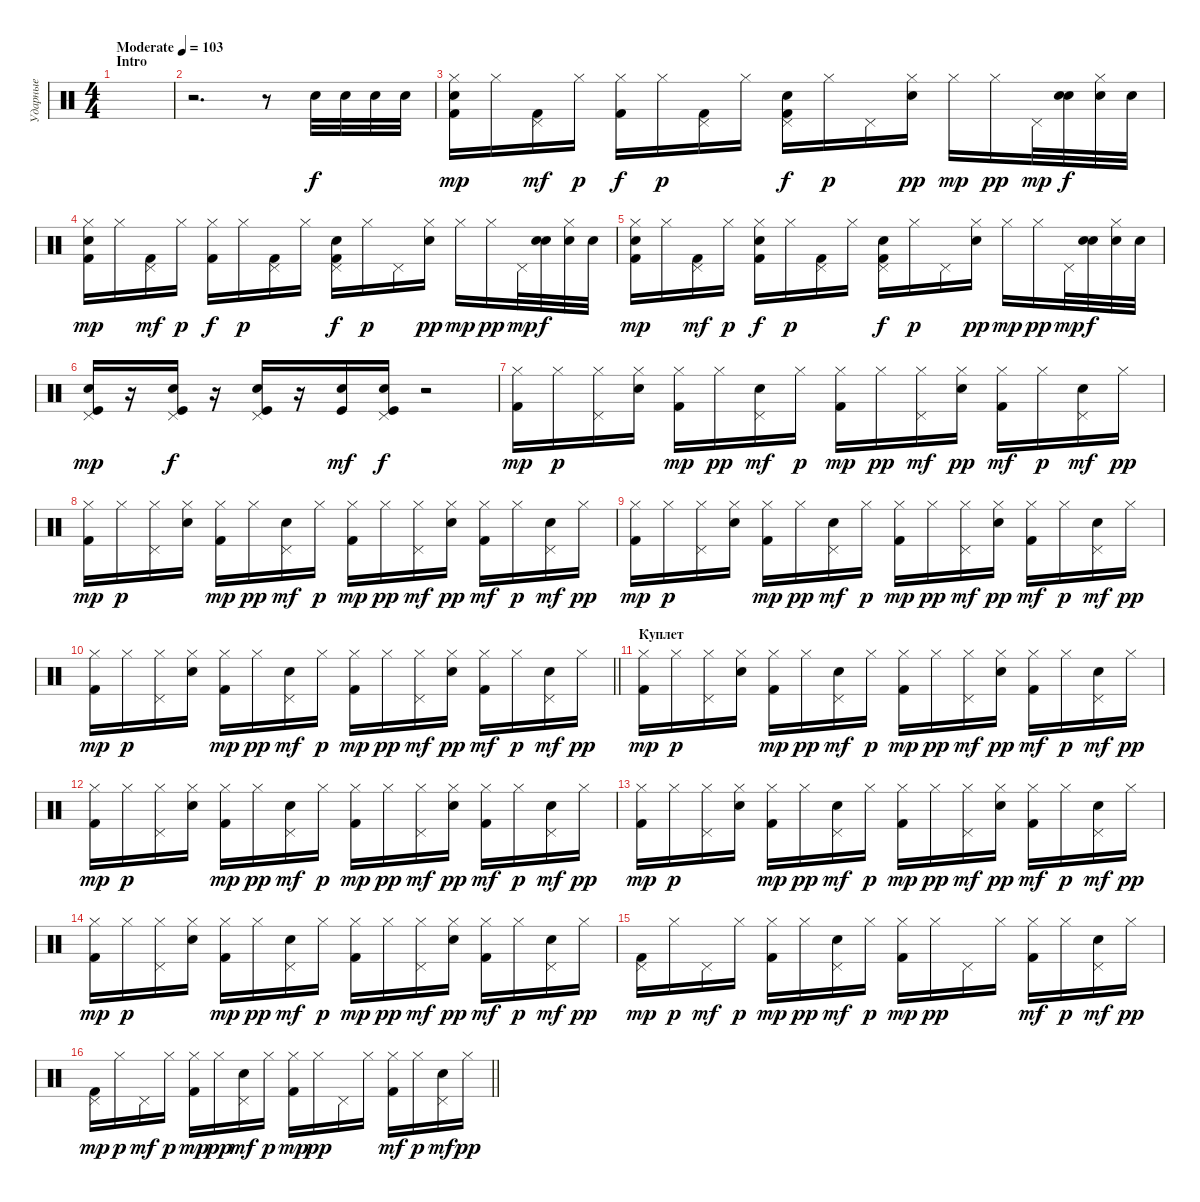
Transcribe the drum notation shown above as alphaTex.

\track ("Ударные" "Ударные") {instrument percussion}
\staff {score}
\articulation defaults
\ts (4 4)
\section ("" "Intro")
\tempo (103 "Moderate")
\clef neutral
\ks c
|
r.2{d} r.8 "Electric Snare (hit)".32 "Electric Snare (hit)".32 "Electric Snare (hit)".32 "Electric Snare (hit)".32 |
("Electric Snare (hit)" "Kick (hit) 2" "Hi-Hat (closed)").16{dy mp} "Hi-Hat (closed)".16 ("Pedal Hi-Hat (hit)" "Kick (hit) 2").16{dy mf} "Hi-Hat (closed)".16{dy p} ("Hi-Hat (closed)" "Kick (hit) 2").16{dy f} "Hi-Hat (closed)".16{dy p} ("Pedal Hi-Hat (hit)" "Kick (hit) 2").16 "Hi-Hat (closed)".16 ("Electric Snare (hit)" "Kick (hit) 2" "Pedal Hi-Hat (hit)").16{dy f} "Hi-Hat (closed)".16{dy p} "Pedal Hi-Hat (hit)".16 ("Electric Snare (hit)" "Hi-Hat (closed)").16{dy pp} "Hi-Hat (closed)".16{dy mp} "Hi-Hat (closed)".16{dy pp} "Pedal Hi-Hat (hit)".32{dy mp} ("Electric Snare (hit)" "Electric Snare (hit)").32{dy f} ("Electric Snare (hit)" "Hi-Hat (closed)").32 "Electric Snare (hit)".32 |
("Electric Snare (hit)" "Kick (hit) 2" "Hi-Hat (closed)").16{dy mp} "Hi-Hat (closed)".16 ("Pedal Hi-Hat (hit)" "Kick (hit) 2").16{dy mf} "Hi-Hat (closed)".16{dy p} ("Hi-Hat (closed)" "Kick (hit) 2").16{dy f} "Hi-Hat (closed)".16{dy p} ("Pedal Hi-Hat (hit)" "Kick (hit) 2").16 "Hi-Hat (closed)".16 ("Electric Snare (hit)" "Kick (hit) 2" "Pedal Hi-Hat (hit)").16{dy f} "Hi-Hat (closed)".16{dy p} "Pedal Hi-Hat (hit)".16 ("Electric Snare (hit)" "Hi-Hat (closed)").16{dy pp} "Hi-Hat (closed)".16{dy mp} "Hi-Hat (closed)".16{dy pp} "Pedal Hi-Hat (hit)".32{dy mp} ("Electric Snare (hit)" "Electric Snare (hit)").32{dy f} ("Electric Snare (hit)" "Hi-Hat (closed)").32 "Electric Snare (hit)".32 |
("Electric Snare (hit)" "Kick (hit) 2" "Hi-Hat (closed)").16{dy mp} "Hi-Hat (closed)".16 ("Pedal Hi-Hat (hit)" "Kick (hit) 2").16{dy mf} "Hi-Hat (closed)".16{dy p} ("Hi-Hat (closed)" "Electric Snare (hit)" "Kick (hit) 2").16{dy f} "Hi-Hat (closed)".16{dy p} ("Pedal Hi-Hat (hit)" "Kick (hit) 2").16 "Hi-Hat (closed)".16 ("Electric Snare (hit)" "Kick (hit) 2" "Pedal Hi-Hat (hit)").16{dy f} "Hi-Hat (closed)".16{dy p} "Pedal Hi-Hat (hit)".16 ("Electric Snare (hit)" "Hi-Hat (closed)").16{dy pp} "Hi-Hat (closed)".16{dy mp} "Hi-Hat (closed)".16{dy pp} "Pedal Hi-Hat (hit)".32{dy mp} ("Electric Snare (hit)" "Electric Snare (hit)").32{dy f} ("Electric Snare (hit)" "Hi-Hat (closed)").32 "Electric Snare (hit)".32 |
("Electric Snare (hit)" "Pedal Hi-Hat (hit)" "Kick (hit)").16{dy mp} r.16 ("Electric Snare (hit)" "Pedal Hi-Hat (hit)" "Kick (hit)").16{dy f} r.16 ("Electric Snare (hit)" "Pedal Hi-Hat (hit)" "Kick (hit)").16 r.16 ("Electric Snare (hit)" "Kick (hit)").16{dy mf} ("Electric Snare (hit)" "Pedal Hi-Hat (hit)" "Kick (hit)").16{dy f} r.2 |
("Hi-Hat (closed)" "Kick (hit) 2").16{dy mp} "Hi-Hat (closed)".16{dy p} ("Pedal Hi-Hat (hit)" "Hi-Hat (closed)").16 ("Electric Snare (hit)" "Hi-Hat (closed)").16 ("Kick (hit) 2" "Hi-Hat (closed)").16{dy mp} "Hi-Hat (closed)".16{dy pp} ("Electric Snare (hit)" "Pedal Hi-Hat (hit)").16{dy mf} "Hi-Hat (closed)".16{dy p} ("Hi-Hat (closed)" "Kick (hit) 2").16{dy mp} "Hi-Hat (closed)".16{dy pp} ("Hi-Hat (closed)" "Pedal Hi-Hat (hit)").16{dy mf} ("Electric Snare (hit)" "Hi-Hat (closed)").16{dy pp} ("Hi-Hat (closed)" "Kick (hit) 2").16{dy mf} "Hi-Hat (closed)".16{dy p} ("Electric Snare (hit)" "Pedal Hi-Hat (hit)").16{dy mf} "Hi-Hat (closed)".16{dy pp} |
("Hi-Hat (closed)" "Kick (hit) 2").16{dy mp} "Hi-Hat (closed)".16{dy p} ("Pedal Hi-Hat (hit)" "Hi-Hat (closed)").16 ("Electric Snare (hit)" "Hi-Hat (closed)").16 ("Kick (hit) 2" "Hi-Hat (closed)").16{dy mp} "Hi-Hat (closed)".16{dy pp} ("Electric Snare (hit)" "Pedal Hi-Hat (hit)").16{dy mf} "Hi-Hat (closed)".16{dy p} ("Hi-Hat (closed)" "Kick (hit) 2").16{dy mp} "Hi-Hat (closed)".16{dy pp} ("Hi-Hat (closed)" "Pedal Hi-Hat (hit)").16{dy mf} ("Electric Snare (hit)" "Hi-Hat (closed)").16{dy pp} ("Hi-Hat (closed)" "Kick (hit) 2").16{dy mf} "Hi-Hat (closed)".16{dy p} ("Electric Snare (hit)" "Pedal Hi-Hat (hit)").16{dy mf} "Hi-Hat (closed)".16{dy pp} |
("Hi-Hat (closed)" "Kick (hit) 2").16{dy mp} "Hi-Hat (closed)".16{dy p} ("Pedal Hi-Hat (hit)" "Hi-Hat (closed)").16 ("Electric Snare (hit)" "Hi-Hat (closed)").16 ("Kick (hit) 2" "Hi-Hat (closed)").16{dy mp} "Hi-Hat (closed)".16{dy pp} ("Electric Snare (hit)" "Pedal Hi-Hat (hit)").16{dy mf} "Hi-Hat (closed)".16{dy p} ("Hi-Hat (closed)" "Kick (hit) 2").16{dy mp} "Hi-Hat (closed)".16{dy pp} ("Hi-Hat (closed)" "Pedal Hi-Hat (hit)").16{dy mf} ("Electric Snare (hit)" "Hi-Hat (closed)").16{dy pp} ("Hi-Hat (closed)" "Kick (hit) 2").16{dy mf} "Hi-Hat (closed)".16{dy p} ("Electric Snare (hit)" "Pedal Hi-Hat (hit)").16{dy mf} "Hi-Hat (closed)".16{dy pp} |
\barLineRight lightlight
("Hi-Hat (closed)" "Kick (hit) 2").16{dy mp} "Hi-Hat (closed)".16{dy p} ("Pedal Hi-Hat (hit)" "Hi-Hat (closed)").16 ("Electric Snare (hit)" "Hi-Hat (closed)").16 ("Kick (hit) 2" "Hi-Hat (closed)").16{dy mp} "Hi-Hat (closed)".16{dy pp} ("Electric Snare (hit)" "Pedal Hi-Hat (hit)").16{dy mf} "Hi-Hat (closed)".16{dy p} ("Hi-Hat (closed)" "Kick (hit) 2").16{dy mp} "Hi-Hat (closed)".16{dy pp} ("Hi-Hat (closed)" "Pedal Hi-Hat (hit)").16{dy mf} ("Electric Snare (hit)" "Hi-Hat (closed)").16{dy pp} ("Hi-Hat (closed)" "Kick (hit) 2").16{dy mf} "Hi-Hat (closed)".16{dy p} ("Electric Snare (hit)" "Pedal Hi-Hat (hit)").16{dy mf} "Hi-Hat (closed)".16{dy pp} |
\section ("" "Куплет")
("Hi-Hat (closed)" "Kick (hit) 2").16{dy mp} "Hi-Hat (closed)".16{dy p} ("Pedal Hi-Hat (hit)" "Hi-Hat (closed)").16 ("Electric Snare (hit)" "Hi-Hat (closed)").16 ("Kick (hit) 2" "Hi-Hat (closed)").16{dy mp} "Hi-Hat (closed)".16{dy pp} ("Electric Snare (hit)" "Pedal Hi-Hat (hit)").16{dy mf} "Hi-Hat (closed)".16{dy p} ("Hi-Hat (closed)" "Kick (hit) 2").16{dy mp} "Hi-Hat (closed)".16{dy pp} ("Hi-Hat (closed)" "Pedal Hi-Hat (hit)").16{dy mf} ("Electric Snare (hit)" "Hi-Hat (closed)").16{dy pp} ("Hi-Hat (closed)" "Kick (hit) 2").16{dy mf} "Hi-Hat (closed)".16{dy p} ("Electric Snare (hit)" "Pedal Hi-Hat (hit)").16{dy mf} "Hi-Hat (closed)".16{dy pp} |
("Hi-Hat (closed)" "Kick (hit) 2").16{dy mp} "Hi-Hat (closed)".16{dy p} ("Pedal Hi-Hat (hit)" "Hi-Hat (closed)").16 ("Electric Snare (hit)" "Hi-Hat (closed)").16 ("Kick (hit) 2" "Hi-Hat (closed)").16{dy mp} "Hi-Hat (closed)".16{dy pp} ("Electric Snare (hit)" "Pedal Hi-Hat (hit)").16{dy mf} "Hi-Hat (closed)".16{dy p} ("Hi-Hat (closed)" "Kick (hit) 2").16{dy mp} "Hi-Hat (closed)".16{dy pp} ("Hi-Hat (closed)" "Pedal Hi-Hat (hit)").16{dy mf} ("Electric Snare (hit)" "Hi-Hat (closed)").16{dy pp} ("Hi-Hat (closed)" "Kick (hit) 2").16{dy mf} "Hi-Hat (closed)".16{dy p} ("Electric Snare (hit)" "Pedal Hi-Hat (hit)").16{dy mf} "Hi-Hat (closed)".16{dy pp} |
("Hi-Hat (closed)" "Kick (hit) 2").16{dy mp} "Hi-Hat (closed)".16{dy p} ("Pedal Hi-Hat (hit)" "Hi-Hat (closed)").16 ("Electric Snare (hit)" "Hi-Hat (closed)").16 ("Kick (hit) 2" "Hi-Hat (closed)").16{dy mp} "Hi-Hat (closed)".16{dy pp} ("Electric Snare (hit)" "Pedal Hi-Hat (hit)").16{dy mf} "Hi-Hat (closed)".16{dy p} ("Hi-Hat (closed)" "Kick (hit) 2").16{dy mp} "Hi-Hat (closed)".16{dy pp} ("Hi-Hat (closed)" "Pedal Hi-Hat (hit)").16{dy mf} ("Electric Snare (hit)" "Hi-Hat (closed)").16{dy pp} ("Hi-Hat (closed)" "Kick (hit) 2").16{dy mf} "Hi-Hat (closed)".16{dy p} ("Electric Snare (hit)" "Pedal Hi-Hat (hit)").16{dy mf} "Hi-Hat (closed)".16{dy pp} |
("Hi-Hat (closed)" "Kick (hit) 2").16{dy mp} "Hi-Hat (closed)".16{dy p} ("Pedal Hi-Hat (hit)" "Hi-Hat (closed)").16 ("Electric Snare (hit)" "Hi-Hat (closed)").16 ("Kick (hit) 2" "Hi-Hat (closed)").16{dy mp} "Hi-Hat (closed)".16{dy pp} ("Electric Snare (hit)" "Pedal Hi-Hat (hit)").16{dy mf} "Hi-Hat (closed)".16{dy p} ("Hi-Hat (closed)" "Kick (hit) 2").16{dy mp} "Hi-Hat (closed)".16{dy pp} ("Hi-Hat (closed)" "Pedal Hi-Hat (hit)").16{dy mf} ("Electric Snare (hit)" "Hi-Hat (closed)").16{dy pp} ("Hi-Hat (closed)" "Kick (hit) 2").16{dy mf} "Hi-Hat (closed)".16{dy p} ("Electric Snare (hit)" "Pedal Hi-Hat (hit)").16{dy mf} "Hi-Hat (closed)".16{dy pp} |
("Pedal Hi-Hat (hit)" "Kick (hit) 2").16{dy mp} "Hi-Hat (closed)".16{dy p} "Pedal Hi-Hat (hit)".16{dy mf} "Hi-Hat (closed)".16{dy p} ("Kick (hit) 2" "Hi-Hat (closed)").16{dy mp} "Hi-Hat (closed)".16{dy pp} ("Electric Snare (hit)" "Pedal Hi-Hat (hit)").16{dy mf} "Hi-Hat (closed)".16{dy p} ("Hi-Hat (closed)" "Kick (hit) 2").16{dy mp} "Hi-Hat (closed)".16{dy pp} "Pedal Hi-Hat (hit)".16 "Hi-Hat (closed)".16 ("Hi-Hat (closed)" "Kick (hit) 2").16{dy mf} "Hi-Hat (closed)".16{dy p} ("Electric Snare (hit)" "Pedal Hi-Hat (hit)").16{dy mf} "Hi-Hat (closed)".16{dy pp} |
\barLineRight lightlight
("Pedal Hi-Hat (hit)" "Kick (hit) 2").16{dy mp} "Hi-Hat (closed)".16{dy p} "Pedal Hi-Hat (hit)".16{dy mf} "Hi-Hat (closed)".16{dy p} ("Kick (hit) 2" "Hi-Hat (closed)").16{dy mp} "Hi-Hat (closed)".16{dy pp} ("Electric Snare (hit)" "Pedal Hi-Hat (hit)").16{dy mf} "Hi-Hat (closed)".16{dy p} ("Hi-Hat (closed)" "Kick (hit) 2").16{dy mp} "Hi-Hat (closed)".16{dy pp} "Pedal Hi-Hat (hit)".16 "Hi-Hat (closed)".16 ("Hi-Hat (closed)" "Kick (hit) 2").16{dy mf} "Hi-Hat (closed)".16{dy p} ("Electric Snare (hit)" "Pedal Hi-Hat (hit)").16{dy mf} "Hi-Hat (closed)".16{dy pp}
